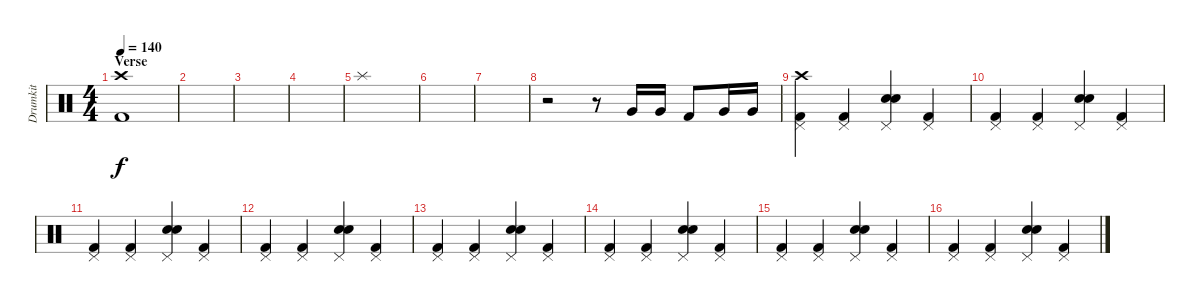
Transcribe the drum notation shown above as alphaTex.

\track ("Drumkit" "Drumkit") {instrument percussion}
\staff {score}
\articulation defaults
\ts (4 4)
\section ("" "Verse")
\tempo 140
\clef neutral
\ks c
("Crash high (hit)" "Kick (hit) 2").1{dy f} |
|
|
|
"Splash (hit)".1 |
|
|
r.2 r.8 "Very Low Tom (hit)".16 "Very Low Tom (hit)".16 "Kick (hit) 2".8 "Very Low Tom (hit)".16 "Very Low Tom (hit)".16 |
("Crash high (hit)" "Pedal Hi-Hat (hit)" "Kick (hit) 2").4 ("Pedal Hi-Hat (hit)" "Kick (hit) 2").4 ("Electric Snare (hit)" "Snare (hit) 2" "Pedal Hi-Hat (hit)").4 ("Pedal Hi-Hat (hit)" "Kick (hit) 2").4 |
("Pedal Hi-Hat (hit)" "Kick (hit) 2").4 ("Pedal Hi-Hat (hit)" "Kick (hit) 2").4 ("Electric Snare (hit)" "Snare (hit) 2" "Pedal Hi-Hat (hit)").4 ("Pedal Hi-Hat (hit)" "Kick (hit) 2").4 |
("Pedal Hi-Hat (hit)" "Kick (hit) 2").4 ("Pedal Hi-Hat (hit)" "Kick (hit) 2").4 ("Electric Snare (hit)" "Snare (hit) 2" "Pedal Hi-Hat (hit)").4 ("Pedal Hi-Hat (hit)" "Kick (hit) 2").4 |
("Pedal Hi-Hat (hit)" "Kick (hit) 2").4 ("Pedal Hi-Hat (hit)" "Kick (hit) 2").4 ("Electric Snare (hit)" "Snare (hit) 2" "Pedal Hi-Hat (hit)").4 ("Pedal Hi-Hat (hit)" "Kick (hit) 2").4 |
("Pedal Hi-Hat (hit)" "Kick (hit) 2").4 ("Pedal Hi-Hat (hit)" "Kick (hit) 2").4 ("Electric Snare (hit)" "Snare (hit) 2" "Pedal Hi-Hat (hit)").4 ("Pedal Hi-Hat (hit)" "Kick (hit) 2").4 |
("Pedal Hi-Hat (hit)" "Kick (hit) 2").4 ("Pedal Hi-Hat (hit)" "Kick (hit) 2").4 ("Electric Snare (hit)" "Snare (hit) 2" "Pedal Hi-Hat (hit)").4 ("Pedal Hi-Hat (hit)" "Kick (hit) 2").4 |
("Pedal Hi-Hat (hit)" "Kick (hit) 2").4 ("Pedal Hi-Hat (hit)" "Kick (hit) 2").4 ("Electric Snare (hit)" "Snare (hit) 2" "Pedal Hi-Hat (hit)").4 ("Pedal Hi-Hat (hit)" "Kick (hit) 2").4 |
("Pedal Hi-Hat (hit)" "Kick (hit) 2").4 ("Pedal Hi-Hat (hit)" "Kick (hit) 2").4 ("Electric Snare (hit)" "Snare (hit) 2" "Pedal Hi-Hat (hit)").4 ("Pedal Hi-Hat (hit)" "Kick (hit) 2").4
